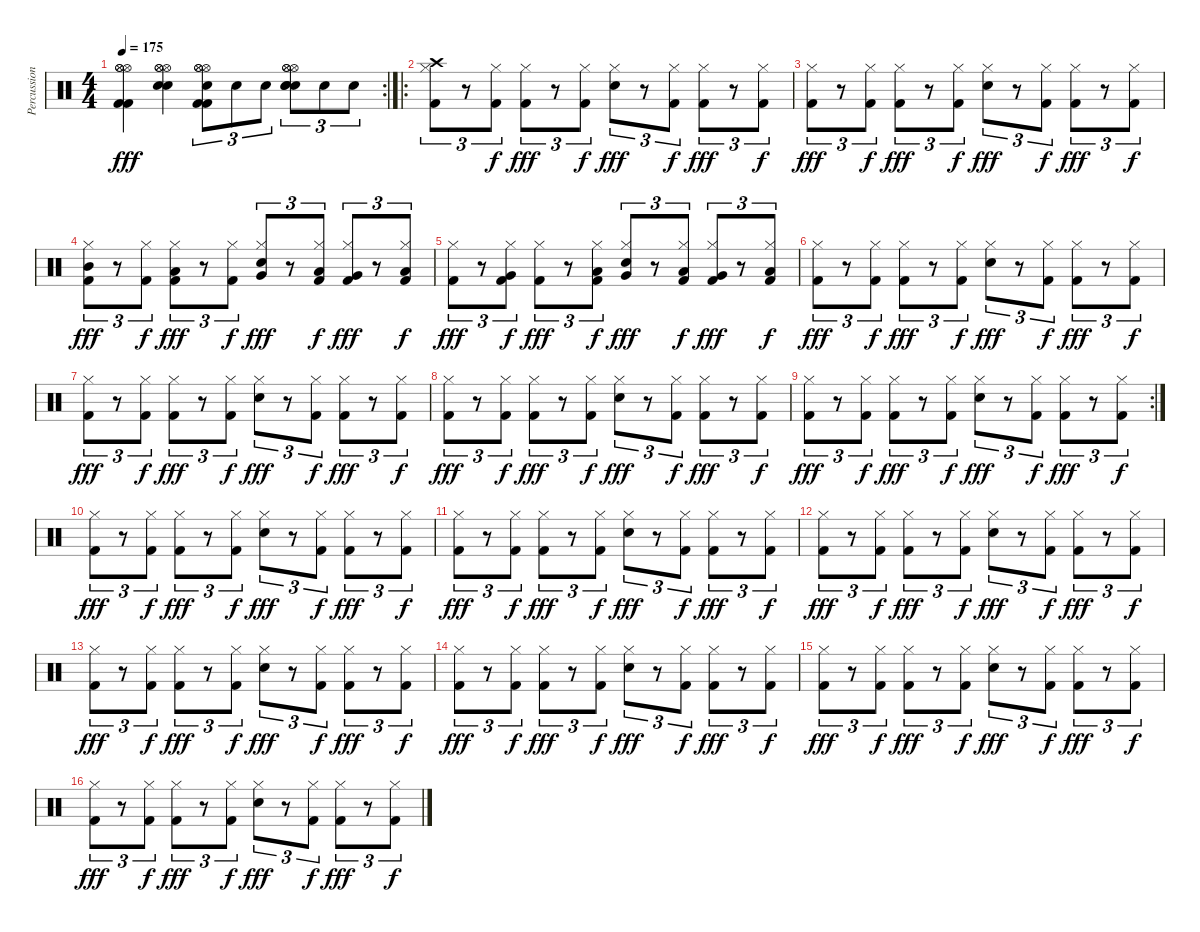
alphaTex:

\track ("Percussion" "Percussion") {instrument percussion}
\staff {score}
\articulation defaults
\rc 2
\ts (4 4)
\tempo 175
\clef neutral
\ks c
("Hi-Hat (open)" "Hi-Hat (open)" "Hi-Hat (open)" "Kick (hit) 2" "Kick (hit) 2").4{dy fff} ("Hi-Hat (open)" "Hi-Hat (open)" "Hi-Hat (open)" "Electric Snare (hit)" "Electric Snare (hit)").4 ("Hi-Hat (open)" "Hi-Hat (open)" "Hi-Hat (open)" "Snare (hit) 2" "Kick (hit) 2" "Kick (hit) 2").8{tu (3 2)} "Snare (hit) 2".8{tu (3 2)} "Snare (hit) 2".8{tu (3 2)} ("Hi-Hat (open)" "Hi-Hat (open)" "Hi-Hat (open)" "Snare (hit) 2" "Electric Snare (hit)" "Electric Snare (hit)").8{tu (3 2)} "Snare (hit) 2".8{tu (3 2)} "Snare (hit) 2".8{tu (3 2)} |
\ro
("Kick (hit) 2" "Hi-Hat (closed)" "Crash high (hit)").8{tu (3 2)} r.8{tu (3 2)} ("Kick (hit) 2" "Hi-Hat (closed)").8{tu (3 2) dy f} ("Kick (hit) 2" "Hi-Hat (closed)").8{tu (3 2) dy fff} r.8{tu (3 2)} ("Kick (hit) 2" "Hi-Hat (closed)").8{tu (3 2) dy f} ("Electric Snare (hit)" "Hi-Hat (closed)").8{tu (3 2) dy fff} r.8{tu (3 2)} ("Kick (hit) 2" "Hi-Hat (closed)").8{tu (3 2) dy f} ("Kick (hit) 2" "Hi-Hat (closed)").8{tu (3 2) dy fff} r.8{tu (3 2)} ("Kick (hit) 2" "Hi-Hat (closed)").8{tu (3 2) dy f} |
("Kick (hit) 2" "Hi-Hat (closed)").8{tu (3 2) dy fff} r.8{tu (3 2)} ("Kick (hit) 2" "Hi-Hat (closed)").8{tu (3 2) dy f} ("Kick (hit) 2" "Hi-Hat (closed)").8{tu (3 2) dy fff} r.8{tu (3 2)} ("Kick (hit) 2" "Hi-Hat (closed)").8{tu (3 2) dy f} ("Electric Snare (hit)" "Hi-Hat (closed)").8{tu (3 2) dy fff} r.8{tu (3 2)} ("Kick (hit) 2" "Hi-Hat (closed)").8{tu (3 2) dy f} ("Kick (hit) 2" "Hi-Hat (closed)").8{tu (3 2) dy fff} r.8{tu (3 2)} ("Kick (hit) 2" "Hi-Hat (closed)").8{tu (3 2) dy f} |
("Kick (hit) 2" "Hi-Hat (closed)" "Mid Tom (hit)").8{tu (3 2) dy fff} r.8{tu (3 2)} ("Kick (hit) 2" "Hi-Hat (closed)").8{tu (3 2) dy f} ("Kick (hit) 2" "Hi-Hat (closed)" "Low Tom (hit)").8{tu (3 2) dy fff} r.8{tu (3 2)} ("Kick (hit) 2" "Hi-Hat (closed)").8{tu (3 2) dy f} ("Electric Snare (hit)" "Hi-Hat (closed)" "Very Low Tom (hit)").8{tu (3 2) dy fff} r.8{tu (3 2)} ("Kick (hit) 2" "Hi-Hat (closed)" "Low Floor Tom (hit)").8{tu (3 2) dy f} ("Kick (hit) 2" "Hi-Hat (closed)" "Very Low Tom (hit)").8{tu (3 2) dy fff} r.8{tu (3 2)} ("Kick (hit) 2" "Hi-Hat (closed)" "Low Floor Tom (hit)").8{tu (3 2) dy f} |
("Kick (hit) 2" "Hi-Hat (closed)").8{tu (3 2) dy fff} r.8{tu (3 2)} ("Kick (hit) 2" "Hi-Hat (closed)" "Very Low Tom (hit)").8{tu (3 2) dy f} ("Kick (hit) 2" "Hi-Hat (closed)").8{tu (3 2) dy fff} r.8{tu (3 2)} ("Kick (hit) 2" "Hi-Hat (closed)" "Low Floor Tom (hit)").8{tu (3 2) dy f} ("Electric Snare (hit)" "Hi-Hat (closed)" "Very Low Tom (hit)").8{tu (3 2) dy fff} r.8{tu (3 2)} ("Kick (hit) 2" "Hi-Hat (closed)" "Low Floor Tom (hit)").8{tu (3 2) dy f} ("Kick (hit) 2" "Hi-Hat (closed)" "Very Low Tom (hit)").8{tu (3 2) dy fff} r.8{tu (3 2)} ("Kick (hit) 2" "Hi-Hat (closed)" "Low Floor Tom (hit)").8{tu (3 2) dy f} |
("Kick (hit) 2" "Hi-Hat (closed)").8{tu (3 2) dy fff} r.8{tu (3 2)} ("Kick (hit) 2" "Hi-Hat (closed)").8{tu (3 2) dy f} ("Kick (hit) 2" "Hi-Hat (closed)").8{tu (3 2) dy fff} r.8{tu (3 2)} ("Kick (hit) 2" "Hi-Hat (closed)").8{tu (3 2) dy f} ("Electric Snare (hit)" "Hi-Hat (closed)").8{tu (3 2) dy fff} r.8{tu (3 2)} ("Kick (hit) 2" "Hi-Hat (closed)").8{tu (3 2) dy f} ("Kick (hit) 2" "Hi-Hat (closed)").8{tu (3 2) dy fff} r.8{tu (3 2)} ("Kick (hit) 2" "Hi-Hat (closed)").8{tu (3 2) dy f} |
("Kick (hit) 2" "Hi-Hat (closed)").8{tu (3 2) dy fff} r.8{tu (3 2)} ("Kick (hit) 2" "Hi-Hat (closed)").8{tu (3 2) dy f} ("Kick (hit) 2" "Hi-Hat (closed)").8{tu (3 2) dy fff} r.8{tu (3 2)} ("Kick (hit) 2" "Hi-Hat (closed)").8{tu (3 2) dy f} ("Electric Snare (hit)" "Hi-Hat (closed)").8{tu (3 2) dy fff} r.8{tu (3 2)} ("Kick (hit) 2" "Hi-Hat (closed)").8{tu (3 2) dy f} ("Kick (hit) 2" "Hi-Hat (closed)").8{tu (3 2) dy fff} r.8{tu (3 2)} ("Kick (hit) 2" "Hi-Hat (closed)").8{tu (3 2) dy f} |
("Kick (hit) 2" "Hi-Hat (closed)").8{tu (3 2) dy fff} r.8{tu (3 2)} ("Kick (hit) 2" "Hi-Hat (closed)").8{tu (3 2) dy f} ("Kick (hit) 2" "Hi-Hat (closed)").8{tu (3 2) dy fff} r.8{tu (3 2)} ("Kick (hit) 2" "Hi-Hat (closed)").8{tu (3 2) dy f} ("Electric Snare (hit)" "Hi-Hat (closed)").8{tu (3 2) dy fff} r.8{tu (3 2)} ("Kick (hit) 2" "Hi-Hat (closed)").8{tu (3 2) dy f} ("Kick (hit) 2" "Hi-Hat (closed)").8{tu (3 2) dy fff} r.8{tu (3 2)} ("Kick (hit) 2" "Hi-Hat (closed)").8{tu (3 2) dy f} |
\rc 2
("Kick (hit) 2" "Hi-Hat (closed)").8{tu (3 2) dy fff} r.8{tu (3 2)} ("Kick (hit) 2" "Hi-Hat (closed)").8{tu (3 2) dy f} ("Kick (hit) 2" "Hi-Hat (closed)").8{tu (3 2) dy fff} r.8{tu (3 2)} ("Kick (hit) 2" "Hi-Hat (closed)").8{tu (3 2) dy f} ("Electric Snare (hit)" "Hi-Hat (closed)").8{tu (3 2) dy fff} r.8{tu (3 2)} ("Kick (hit) 2" "Hi-Hat (closed)").8{tu (3 2) dy f} ("Kick (hit) 2" "Hi-Hat (closed)").8{tu (3 2) dy fff} r.8{tu (3 2)} ("Kick (hit) 2" "Hi-Hat (closed)").8{tu (3 2) dy f} |
("Kick (hit) 2" "Hi-Hat (closed)").8{tu (3 2) dy fff} r.8{tu (3 2)} ("Kick (hit) 2" "Hi-Hat (closed)").8{tu (3 2) dy f} ("Kick (hit) 2" "Hi-Hat (closed)").8{tu (3 2) dy fff} r.8{tu (3 2)} ("Kick (hit) 2" "Hi-Hat (closed)").8{tu (3 2) dy f} ("Electric Snare (hit)" "Hi-Hat (closed)").8{tu (3 2) dy fff} r.8{tu (3 2)} ("Kick (hit) 2" "Hi-Hat (closed)").8{tu (3 2) dy f} ("Kick (hit) 2" "Hi-Hat (closed)").8{tu (3 2) dy fff} r.8{tu (3 2)} ("Kick (hit) 2" "Hi-Hat (closed)").8{tu (3 2) dy f} |
("Kick (hit) 2" "Hi-Hat (closed)").8{tu (3 2) dy fff} r.8{tu (3 2)} ("Kick (hit) 2" "Hi-Hat (closed)").8{tu (3 2) dy f} ("Kick (hit) 2" "Hi-Hat (closed)").8{tu (3 2) dy fff} r.8{tu (3 2)} ("Kick (hit) 2" "Hi-Hat (closed)").8{tu (3 2) dy f} ("Electric Snare (hit)" "Hi-Hat (closed)").8{tu (3 2) dy fff} r.8{tu (3 2)} ("Kick (hit) 2" "Hi-Hat (closed)").8{tu (3 2) dy f} ("Kick (hit) 2" "Hi-Hat (closed)").8{tu (3 2) dy fff} r.8{tu (3 2)} ("Kick (hit) 2" "Hi-Hat (closed)").8{tu (3 2) dy f} |
("Kick (hit) 2" "Hi-Hat (closed)").8{tu (3 2) dy fff} r.8{tu (3 2)} ("Kick (hit) 2" "Hi-Hat (closed)").8{tu (3 2) dy f} ("Kick (hit) 2" "Hi-Hat (closed)").8{tu (3 2) dy fff} r.8{tu (3 2)} ("Kick (hit) 2" "Hi-Hat (closed)").8{tu (3 2) dy f} ("Electric Snare (hit)" "Hi-Hat (closed)").8{tu (3 2) dy fff} r.8{tu (3 2)} ("Kick (hit) 2" "Hi-Hat (closed)").8{tu (3 2) dy f} ("Kick (hit) 2" "Hi-Hat (closed)").8{tu (3 2) dy fff} r.8{tu (3 2)} ("Kick (hit) 2" "Hi-Hat (closed)").8{tu (3 2) dy f} |
("Kick (hit) 2" "Hi-Hat (closed)").8{tu (3 2) dy fff} r.8{tu (3 2)} ("Kick (hit) 2" "Hi-Hat (closed)").8{tu (3 2) dy f} ("Kick (hit) 2" "Hi-Hat (closed)").8{tu (3 2) dy fff} r.8{tu (3 2)} ("Kick (hit) 2" "Hi-Hat (closed)").8{tu (3 2) dy f} ("Electric Snare (hit)" "Hi-Hat (closed)").8{tu (3 2) dy fff} r.8{tu (3 2)} ("Kick (hit) 2" "Hi-Hat (closed)").8{tu (3 2) dy f} ("Kick (hit) 2" "Hi-Hat (closed)").8{tu (3 2) dy fff} r.8{tu (3 2)} ("Kick (hit) 2" "Hi-Hat (closed)").8{tu (3 2) dy f} |
("Kick (hit) 2" "Hi-Hat (closed)").8{tu (3 2) dy fff} r.8{tu (3 2)} ("Kick (hit) 2" "Hi-Hat (closed)").8{tu (3 2) dy f} ("Kick (hit) 2" "Hi-Hat (closed)").8{tu (3 2) dy fff} r.8{tu (3 2)} ("Kick (hit) 2" "Hi-Hat (closed)").8{tu (3 2) dy f} ("Electric Snare (hit)" "Hi-Hat (closed)").8{tu (3 2) dy fff} r.8{tu (3 2)} ("Kick (hit) 2" "Hi-Hat (closed)").8{tu (3 2) dy f} ("Kick (hit) 2" "Hi-Hat (closed)").8{tu (3 2) dy fff} r.8{tu (3 2)} ("Kick (hit) 2" "Hi-Hat (closed)").8{tu (3 2) dy f} |
("Kick (hit) 2" "Hi-Hat (closed)").8{tu (3 2) dy fff} r.8{tu (3 2)} ("Kick (hit) 2" "Hi-Hat (closed)").8{tu (3 2) dy f} ("Kick (hit) 2" "Hi-Hat (closed)").8{tu (3 2) dy fff} r.8{tu (3 2)} ("Kick (hit) 2" "Hi-Hat (closed)").8{tu (3 2) dy f} ("Electric Snare (hit)" "Hi-Hat (closed)").8{tu (3 2) dy fff} r.8{tu (3 2)} ("Kick (hit) 2" "Hi-Hat (closed)").8{tu (3 2) dy f} ("Kick (hit) 2" "Hi-Hat (closed)").8{tu (3 2) dy fff} r.8{tu (3 2)} ("Kick (hit) 2" "Hi-Hat (closed)").8{tu (3 2) dy f} |
("Kick (hit) 2" "Hi-Hat (closed)").8{tu (3 2) dy fff} r.8{tu (3 2)} ("Kick (hit) 2" "Hi-Hat (closed)").8{tu (3 2) dy f} ("Kick (hit) 2" "Hi-Hat (closed)").8{tu (3 2) dy fff} r.8{tu (3 2)} ("Kick (hit) 2" "Hi-Hat (closed)").8{tu (3 2) dy f} ("Electric Snare (hit)" "Hi-Hat (closed)").8{tu (3 2) dy fff} r.8{tu (3 2)} ("Kick (hit) 2" "Hi-Hat (closed)").8{tu (3 2) dy f} ("Kick (hit) 2" "Hi-Hat (closed)").8{tu (3 2) dy fff} r.8{tu (3 2)} ("Kick (hit) 2" "Hi-Hat (closed)").8{tu (3 2) dy f}
